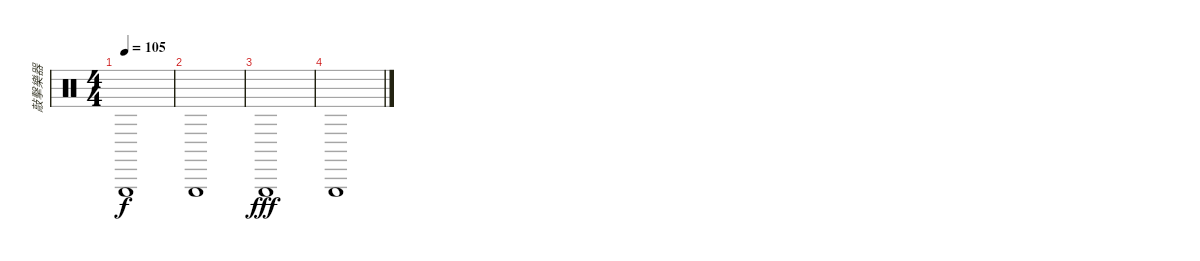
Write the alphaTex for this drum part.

\track ("敲擊樂器" "敲擊樂器") {instrument percussion}
\staff {score}
\articulation defaults
\ts (4 4)
\tempo 105
\clef neutral
\ks c "Triangle (hit)".1{dy f}
|
"Triangle (hit)".1 |
"Triangle (hit)".1{dy fff} |
"Triangle (hit)".1
